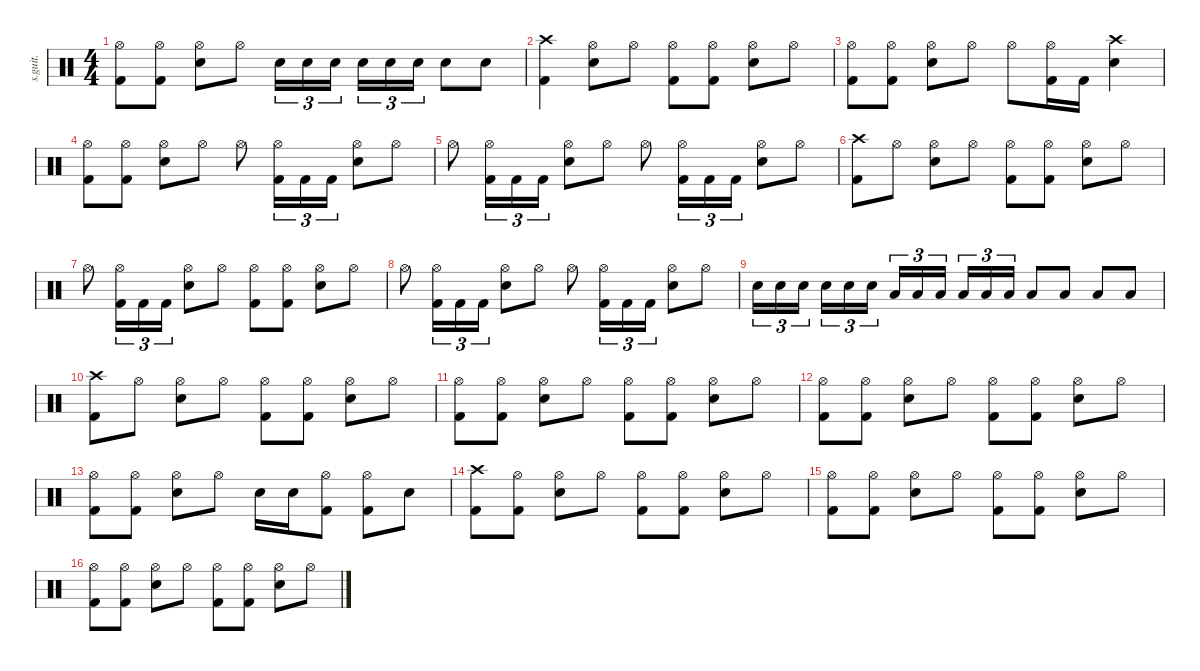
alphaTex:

\defaultSystemsLayout 4
\hideDynamics
\bracketExtendMode nobrackets
\track ("" "s.guit.") {instrument percussion}
\staff {score}
\articulation defaults
\ts (4 4)
\tempo (128 hide)
\clef neutral
\ks c
("Hi-Hat (open)" "Kick (hit) 2").8{dy f} ("Hi-Hat (open)" "Kick (hit) 2").8 ("Hi-Hat (open)" "Snare (hit) 2").8 "Hi-Hat (open)".8 "Snare (hit) 2".16{tu (3 2)} "Snare (hit) 2".16{tu (3 2)} "Snare (hit) 2".16{tu (3 2)} "Snare (hit) 2".16{tu (3 2)} "Snare (hit) 2".16{tu (3 2)} "Snare (hit) 2".16{tu (3 2)} "Snare (hit) 2".8 "Snare (hit) 2".8 |
("Crash high (hit)" "Kick (hit) 2").4 ("Hi-Hat (open)" "Snare (hit) 2").8 "Hi-Hat (open)".8 ("Hi-Hat (open)" "Kick (hit) 2").8 ("Hi-Hat (open)" "Kick (hit) 2").8 ("Hi-Hat (open)" "Snare (hit) 2").8 "Hi-Hat (open)".8 |
("Hi-Hat (open)" "Kick (hit) 2").8 ("Hi-Hat (open)" "Kick (hit) 2").8 ("Hi-Hat (open)" "Snare (hit) 2").8 "Hi-Hat (open)".8 "Hi-Hat (open)".8 ("Hi-Hat (open)" "Kick (hit) 2").16 "Kick (hit) 2".16 ("Crash high (hit)" "Snare (hit) 2").4 |
("Hi-Hat (open)" "Kick (hit) 2").8 ("Hi-Hat (open)" "Kick (hit) 2").8 ("Hi-Hat (open)" "Snare (hit) 2").8 "Hi-Hat (open)".8 "Hi-Hat (open)".8 ("Hi-Hat (open)" "Kick (hit) 2").16{tu (3 2)} "Kick (hit) 2".16{tu (3 2)} "Kick (hit) 2".16{tu (3 2)} ("Hi-Hat (open)" "Snare (hit) 2").8 "Hi-Hat (open)".8 |
"Hi-Hat (open)".8 ("Hi-Hat (open)" "Kick (hit) 2").16{tu (3 2)} "Kick (hit) 2".16{tu (3 2)} "Kick (hit) 2".16{tu (3 2)} ("Hi-Hat (open)" "Snare (hit) 2").8 "Hi-Hat (open)".8 "Hi-Hat (open)".8 ("Hi-Hat (open)" "Kick (hit) 2").16{tu (3 2)} "Kick (hit) 2".16{tu (3 2)} "Kick (hit) 2".16{tu (3 2)} ("Hi-Hat (open)" "Snare (hit) 2").8 "Hi-Hat (open)".8 |
("Crash high (hit)" "Kick (hit) 2").8 "Hi-Hat (open)".8 ("Hi-Hat (open)" "Snare (hit) 2").8 "Hi-Hat (open)".8 ("Hi-Hat (open)" "Kick (hit) 2").8 ("Hi-Hat (open)" "Kick (hit) 2").8 ("Hi-Hat (open)" "Snare (hit) 2").8 "Hi-Hat (open)".8 |
"Hi-Hat (open)".8 ("Hi-Hat (open)" "Kick (hit) 2").16{tu (3 2)} "Kick (hit) 2".16{tu (3 2)} "Kick (hit) 2".16{tu (3 2)} ("Hi-Hat (open)" "Snare (hit) 2").8 "Hi-Hat (open)".8 ("Hi-Hat (open)" "Kick (hit) 2").8 ("Hi-Hat (open)" "Kick (hit) 2").8 ("Hi-Hat (open)" "Snare (hit) 2").8 "Hi-Hat (open)".8 |
"Hi-Hat (open)".8 ("Hi-Hat (open)" "Kick (hit) 2").16{tu (3 2)} "Kick (hit) 2".16{tu (3 2)} "Kick (hit) 2".16{tu (3 2)} ("Hi-Hat (open)" "Snare (hit) 2").8 "Hi-Hat (open)".8 "Hi-Hat (open)".8 ("Hi-Hat (open)" "Kick (hit) 2").16{tu (3 2)} "Kick (hit) 2".16{tu (3 2)} "Kick (hit) 2".16{tu (3 2)} ("Hi-Hat (open)" "Snare (hit) 2").8 "Hi-Hat (open)".8 |
"Snare (hit) 2".16{tu (3 2)} "Snare (hit) 2".16{tu (3 2)} "Snare (hit) 2".16{tu (3 2)} "Snare (hit) 2".16{tu (3 2)} "Snare (hit) 2".16{tu (3 2)} "Snare (hit) 2".16{tu (3 2)} "Low Tom (hit)".16{tu (3 2)} "Low Tom (hit)".16{tu (3 2)} "Low Tom (hit)".16{tu (3 2)} "Low Tom (hit)".16{tu (3 2)} "Low Tom (hit)".16{tu (3 2)} "Low Tom (hit)".16{tu (3 2)} "Low Tom (hit)".8 "Low Tom (hit)".8 "Low Floor Tom (hit)".8 "Low Floor Tom (hit)".8 |
("Crash high (hit)" "Kick (hit) 2").8 "Hi-Hat (open)".8 ("Hi-Hat (open)" "Snare (hit) 2").8 "Hi-Hat (open)".8 ("Hi-Hat (open)" "Kick (hit) 2").8 ("Hi-Hat (open)" "Kick (hit) 2").8 ("Hi-Hat (open)" "Snare (hit) 2").8 "Hi-Hat (open)".8 |
("Hi-Hat (open)" "Kick (hit) 2").8 ("Hi-Hat (open)" "Kick (hit) 2").8 ("Hi-Hat (open)" "Snare (hit) 2").8 "Hi-Hat (open)".8 ("Hi-Hat (open)" "Kick (hit) 2").8 ("Hi-Hat (open)" "Kick (hit) 2").8 ("Hi-Hat (open)" "Snare (hit) 2").8 "Hi-Hat (open)".8 |
("Hi-Hat (open)" "Kick (hit) 2").8 ("Hi-Hat (open)" "Kick (hit) 2").8 ("Hi-Hat (open)" "Snare (hit) 2").8 "Hi-Hat (open)".8 ("Hi-Hat (open)" "Kick (hit) 2").8 ("Hi-Hat (open)" "Kick (hit) 2").8 ("Hi-Hat (open)" "Snare (hit) 2").8 "Hi-Hat (open)".8 |
("Hi-Hat (open)" "Kick (hit) 2").8 ("Hi-Hat (open)" "Kick (hit) 2").8 ("Hi-Hat (open)" "Snare (hit) 2").8 "Hi-Hat (open)".8 "Snare (hit) 2".16 "Snare (hit) 2".16 ("Hi-Hat (open)" "Kick (hit) 2").8 ("Hi-Hat (open)" "Kick (hit) 2").8 "Snare (hit) 2".8 |
("Crash high (hit)" "Kick (hit) 2").8 ("Hi-Hat (open)" "Kick (hit) 2").8 ("Hi-Hat (open)" "Snare (hit) 2").8 "Hi-Hat (open)".8 ("Hi-Hat (open)" "Kick (hit) 2").8 ("Hi-Hat (open)" "Kick (hit) 2").8 ("Hi-Hat (open)" "Snare (hit) 2").8 "Hi-Hat (open)".8 |
("Hi-Hat (open)" "Kick (hit) 2").8 ("Hi-Hat (open)" "Kick (hit) 2").8 ("Hi-Hat (open)" "Snare (hit) 2").8 "Hi-Hat (open)".8 ("Hi-Hat (open)" "Kick (hit) 2").8 ("Hi-Hat (open)" "Kick (hit) 2").8 ("Hi-Hat (open)" "Snare (hit) 2").8 "Hi-Hat (open)".8 |
("Hi-Hat (open)" "Kick (hit) 2").8 ("Hi-Hat (open)" "Kick (hit) 2").8 ("Hi-Hat (open)" "Snare (hit) 2").8 "Hi-Hat (open)".8 ("Hi-Hat (open)" "Kick (hit) 2").8 ("Hi-Hat (open)" "Kick (hit) 2").8 ("Hi-Hat (open)" "Snare (hit) 2").8 "Hi-Hat (open)".8
